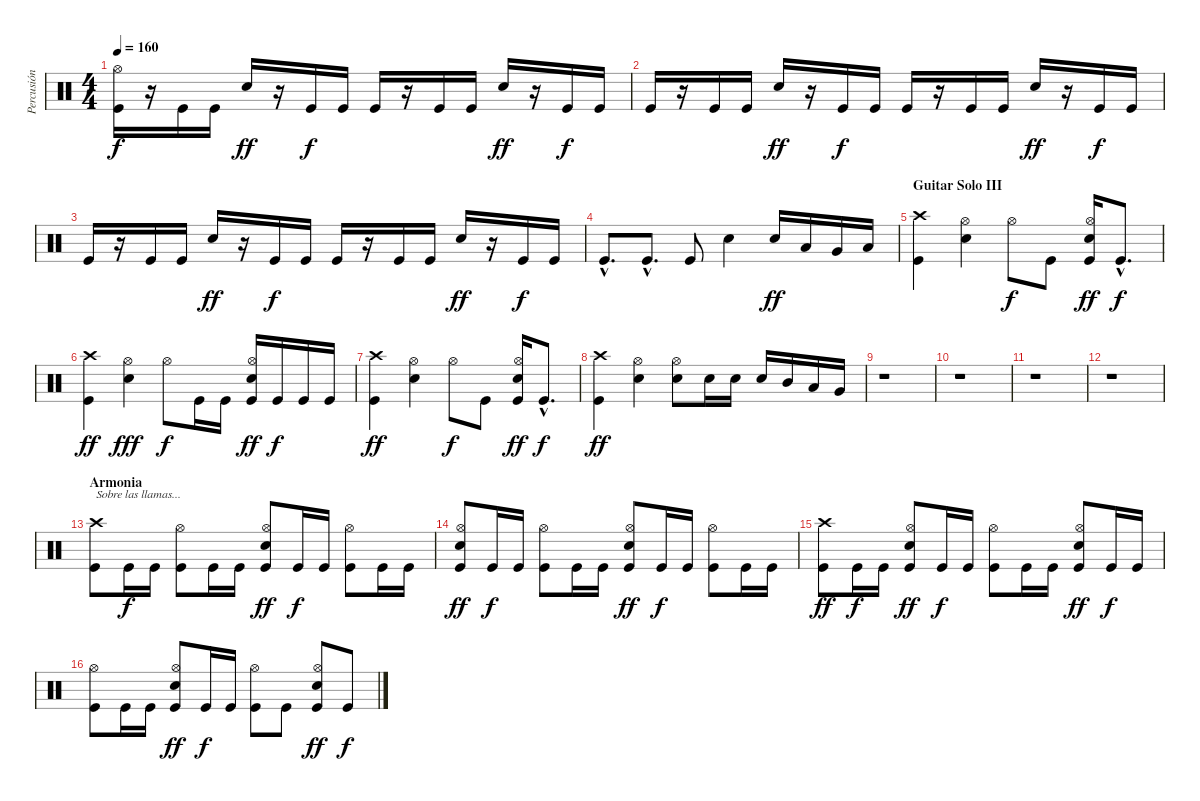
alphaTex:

\track ("Percusión" "Percusión") {instrument percussion}
\staff {score}
\articulation defaults
\ts (4 4)
\tempo 160
\clef neutral
\ks c
("Kick (hit)" "Hi-Hat (open)").16{dy f} r.16 "Kick (hit)".16 "Kick (hit)".16 "Electric Snare (hit)".16{dy ff} r.16 "Kick (hit)".16{dy f} "Kick (hit)".16 "Kick (hit)".16 r.16 "Kick (hit)".16 "Kick (hit)".16 "Electric Snare (hit)".16{dy ff} r.16 "Kick (hit)".16{dy f} "Kick (hit)".16 |
"Kick (hit)".16 r.16 "Kick (hit)".16 "Kick (hit)".16 "Electric Snare (hit)".16{dy ff} r.16 "Kick (hit)".16{dy f} "Kick (hit)".16 "Kick (hit)".16 r.16 "Kick (hit)".16 "Kick (hit)".16 "Electric Snare (hit)".16{dy ff} r.16 "Kick (hit)".16{dy f} "Kick (hit)".16 |
"Kick (hit)".16 r.16 "Kick (hit)".16 "Kick (hit)".16 "Electric Snare (hit)".16{dy ff} r.16 "Kick (hit)".16{dy f} "Kick (hit)".16 "Kick (hit)".16 r.16 "Kick (hit)".16 "Kick (hit)".16 "Electric Snare (hit)".16{dy ff} r.16 "Kick (hit)".16{dy f} "Kick (hit)".16 |
"Kick (hit)"{hac}.8{d} "Kick (hit)"{hac}.8{d} "Kick (hit)".8 "Electric Snare (hit)".4 "Electric Snare (hit)".16{dy ff} "Low Tom (hit)".16 "Very Low Tom (hit)".16 "Low Floor Tom (hit)".16 |
\section ("" "Guitar Solo III")
("Kick (hit)" "Crash high (hit)").4 ("Electric Snare (hit)" "Hi-Hat (open)").4 "Hi-Hat (open)".8{dy f} "Kick (hit)".8 ("Kick (hit)" "Electric Snare (hit)" "Hi-Hat (open)").16{dy ff} "Kick (hit)"{hac}.8{d dy f} |
("Kick (hit)" "Crash high (hit)").4{dy ff} ("Electric Snare (hit)" "Hi-Hat (open)").4{dy fff} "Hi-Hat (open)".8{dy f} "Kick (hit)".16 "Kick (hit)".16 ("Kick (hit)" "Electric Snare (hit)" "Hi-Hat (open)").16{dy ff} "Kick (hit)".16{dy f} "Kick (hit)".16 "Kick (hit)".16 |
("Kick (hit)" "Crash high (hit)").4{dy ff} ("Electric Snare (hit)" "Hi-Hat (open)").4 "Hi-Hat (open)".8{dy f} "Kick (hit)".8 ("Kick (hit)" "Electric Snare (hit)" "Hi-Hat (open)").16{dy ff} "Kick (hit)"{hac}.8{d dy f} |
("Kick (hit)" "Crash high (hit)").4{dy ff} ("Electric Snare (hit)" "Hi-Hat (open)").4 ("Electric Snare (hit)" "Hi-Hat (open)").8 "Electric Snare (hit)".16 "Electric Snare (hit)".16 "Electric Snare (hit)".16 "Mid Tom (hit)".16 "Low Tom (hit)".16 "Very Low Tom (hit)".16 |
r.1 |
r.1 |
r.1 |
r.1 |
\section ("" "Armonia")
("Kick (hit)" "Crash high (hit)").8{txt "Sobre las llamas..."} "Kick (hit)".16{dy f} "Kick (hit)".16 ("Kick (hit)" "Hi-Hat (open)").8 "Kick (hit)".16 "Kick (hit)".16 ("Kick (hit)" "Electric Snare (hit)" "Hi-Hat (open)").8{dy ff} "Kick (hit)".16{dy f} "Kick (hit)".16 ("Kick (hit)" "Hi-Hat (open)").8 "Kick (hit)".16 "Kick (hit)".16 |
("Kick (hit)" "Electric Snare (hit)" "Hi-Hat (open)").8{dy ff} "Kick (hit)".16{dy f} "Kick (hit)".16 ("Kick (hit)" "Hi-Hat (open)").8 "Kick (hit)".16 "Kick (hit)".16 ("Kick (hit)" "Electric Snare (hit)" "Hi-Hat (open)").8{dy ff} "Kick (hit)".16{dy f} "Kick (hit)".16 ("Kick (hit)" "Hi-Hat (open)").8 "Kick (hit)".16 "Kick (hit)".16 |
("Kick (hit)" "Crash high (hit)").8{dy ff} "Kick (hit)".16{dy f} "Kick (hit)".16 ("Kick (hit)" "Electric Snare (hit)" "Hi-Hat (open)").8{dy ff} "Kick (hit)".16{dy f} "Kick (hit)".16 ("Kick (hit)" "Hi-Hat (open)").8 "Kick (hit)".16 "Kick (hit)".16 ("Kick (hit)" "Electric Snare (hit)" "Hi-Hat (open)").8{dy ff} "Kick (hit)".16{dy f} "Kick (hit)".16 |
("Kick (hit)" "Hi-Hat (open)").8 "Kick (hit)".16 "Kick (hit)".16 ("Kick (hit)" "Electric Snare (hit)" "Hi-Hat (open)").8{dy ff} "Kick (hit)".16{dy f} "Kick (hit)".16 ("Kick (hit)" "Hi-Hat (open)").8 "Kick (hit)".8 ("Kick (hit)" "Electric Snare (hit)" "Hi-Hat (open)").8{dy ff} "Kick (hit)".8{dy f}
